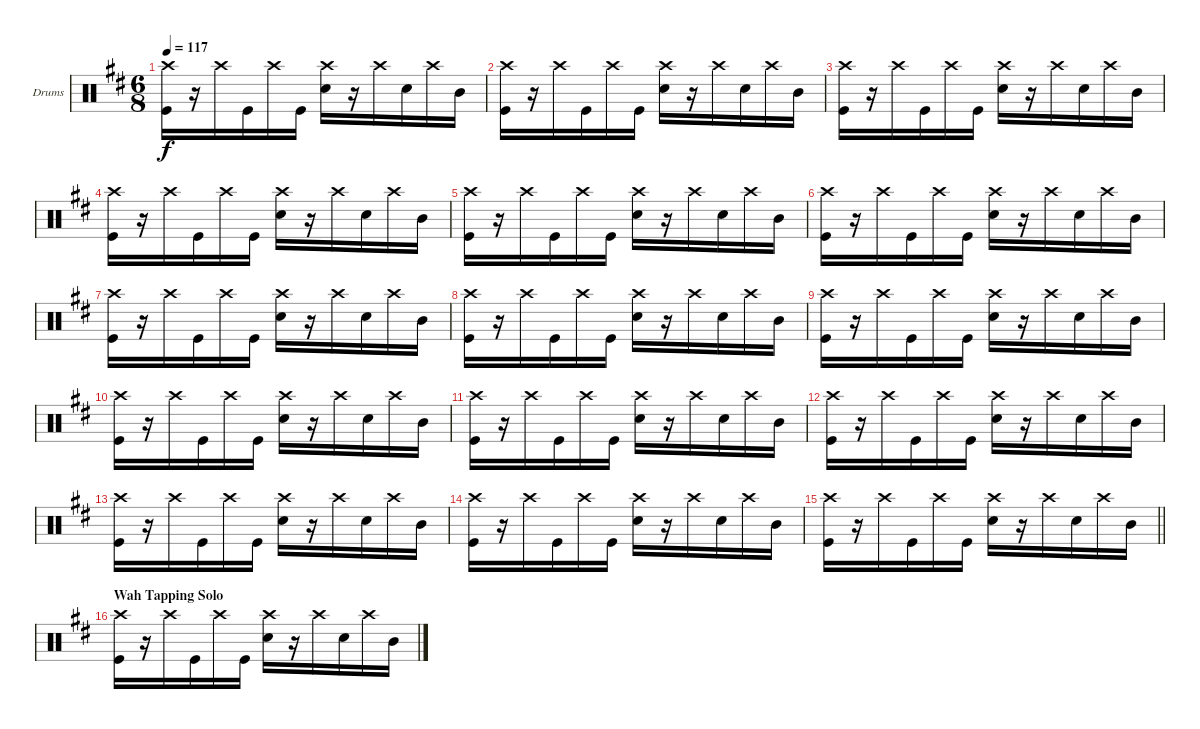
\bracketExtendMode groupsimilarinstruments
\firstSystemTrackNameOrientation horizontal
\otherSystemsTrackNameOrientation horizontal
\track ("Drumkit" "Drums") {instrument percussion}
\staff {score}
\articulation defaults
\ts (6 8)
\tempo 117
\clef neutral
\ks d
("Crash high (hit)" "Kick (hit)").16{dy f} r.16 "Crash high (hit)".16 "Kick (hit)".16 "Crash high (hit)".16 "Kick (hit)".16 ("Crash high (hit)" "Snare (hit) 2").16 r.16 "Crash high (hit)".16 "Snare (hit) 2".16 "Crash high (hit)".16 "Mid Tom (hit)".16 |
("Crash high (hit)" "Kick (hit)").16 r.16 "Crash high (hit)".16 "Kick (hit)".16 "Crash high (hit)".16 "Kick (hit)".16 ("Crash high (hit)" "Snare (hit) 2").16 r.16 "Crash high (hit)".16 "Snare (hit) 2".16 "Crash high (hit)".16 "Mid Tom (hit)".16 |
("Crash high (hit)" "Kick (hit)").16 r.16 "Crash high (hit)".16 "Kick (hit)".16 "Crash high (hit)".16 "Kick (hit)".16 ("Crash high (hit)" "Snare (hit) 2").16 r.16 "Crash high (hit)".16 "Snare (hit) 2".16 "Crash high (hit)".16 "Mid Tom (hit)".16 |
("Crash high (hit)" "Kick (hit)").16 r.16 "Crash high (hit)".16 "Kick (hit)".16 "Crash high (hit)".16 "Kick (hit)".16 ("Crash high (hit)" "Snare (hit) 2").16 r.16 "Crash high (hit)".16 "Snare (hit) 2".16 "Crash high (hit)".16 "Mid Tom (hit)".16 |
("Crash high (hit)" "Kick (hit)").16 r.16 "Crash high (hit)".16 "Kick (hit)".16 "Crash high (hit)".16 "Kick (hit)".16 ("Crash high (hit)" "Snare (hit) 2").16 r.16 "Crash high (hit)".16 "Snare (hit) 2".16 "Crash high (hit)".16 "Mid Tom (hit)".16 |
("Crash high (hit)" "Kick (hit)").16 r.16 "Crash high (hit)".16 "Kick (hit)".16 "Crash high (hit)".16 "Kick (hit)".16 ("Crash high (hit)" "Snare (hit) 2").16 r.16 "Crash high (hit)".16 "Snare (hit) 2".16 "Crash high (hit)".16 "Mid Tom (hit)".16 |
("Crash high (hit)" "Kick (hit)").16 r.16 "Crash high (hit)".16 "Kick (hit)".16 "Crash high (hit)".16 "Kick (hit)".16 ("Crash high (hit)" "Snare (hit) 2").16 r.16 "Crash high (hit)".16 "Snare (hit) 2".16 "Crash high (hit)".16 "Mid Tom (hit)".16 |
("Crash high (hit)" "Kick (hit)").16 r.16 "Crash high (hit)".16 "Kick (hit)".16 "Crash high (hit)".16 "Kick (hit)".16 ("Crash high (hit)" "Snare (hit) 2").16 r.16 "Crash high (hit)".16 "Snare (hit) 2".16 "Crash high (hit)".16 "Mid Tom (hit)".16 |
("Crash high (hit)" "Kick (hit)").16 r.16 "Crash high (hit)".16 "Kick (hit)".16 "Crash high (hit)".16 "Kick (hit)".16 ("Crash high (hit)" "Snare (hit) 2").16 r.16 "Crash high (hit)".16 "Snare (hit) 2".16 "Crash high (hit)".16 "Mid Tom (hit)".16 |
("Crash high (hit)" "Kick (hit)").16 r.16 "Crash high (hit)".16 "Kick (hit)".16 "Crash high (hit)".16 "Kick (hit)".16 ("Crash high (hit)" "Snare (hit) 2").16 r.16 "Crash high (hit)".16 "Snare (hit) 2".16 "Crash high (hit)".16 "Mid Tom (hit)".16 |
("Crash high (hit)" "Kick (hit)").16 r.16 "Crash high (hit)".16 "Kick (hit)".16 "Crash high (hit)".16 "Kick (hit)".16 ("Crash high (hit)" "Snare (hit) 2").16 r.16 "Crash high (hit)".16 "Snare (hit) 2".16 "Crash high (hit)".16 "Mid Tom (hit)".16 |
("Crash high (hit)" "Kick (hit)").16 r.16 "Crash high (hit)".16 "Kick (hit)".16 "Crash high (hit)".16 "Kick (hit)".16 ("Crash high (hit)" "Snare (hit) 2").16 r.16 "Crash high (hit)".16 "Snare (hit) 2".16 "Crash high (hit)".16 "Mid Tom (hit)".16 |
("Crash high (hit)" "Kick (hit)").16 r.16 "Crash high (hit)".16 "Kick (hit)".16 "Crash high (hit)".16 "Kick (hit)".16 ("Crash high (hit)" "Snare (hit) 2").16 r.16 "Crash high (hit)".16 "Snare (hit) 2".16 "Crash high (hit)".16 "Mid Tom (hit)".16 |
("Crash high (hit)" "Kick (hit)").16 r.16 "Crash high (hit)".16 "Kick (hit)".16 "Crash high (hit)".16 "Kick (hit)".16 ("Crash high (hit)" "Snare (hit) 2").16 r.16 "Crash high (hit)".16 "Snare (hit) 2".16 "Crash high (hit)".16 "Mid Tom (hit)".16 |
\barLineRight lightlight
("Crash high (hit)" "Kick (hit)").16 r.16 "Crash high (hit)".16 "Kick (hit)".16 "Crash high (hit)".16 "Kick (hit)".16 ("Crash high (hit)" "Snare (hit) 2").16 r.16 "Crash high (hit)".16 "Snare (hit) 2".16 "Crash high (hit)".16 "Mid Tom (hit)".16 |
\section ("" "Wah Tapping Solo")
("Crash high (hit)" "Kick (hit)").16 r.16 "Crash high (hit)".16 "Kick (hit)".16 "Crash high (hit)".16 "Kick (hit)".16 ("Crash high (hit)" "Snare (hit) 2").16 r.16 "Crash high (hit)".16 "Snare (hit) 2".16 "Crash high (hit)".16 "Mid Tom (hit)".16
